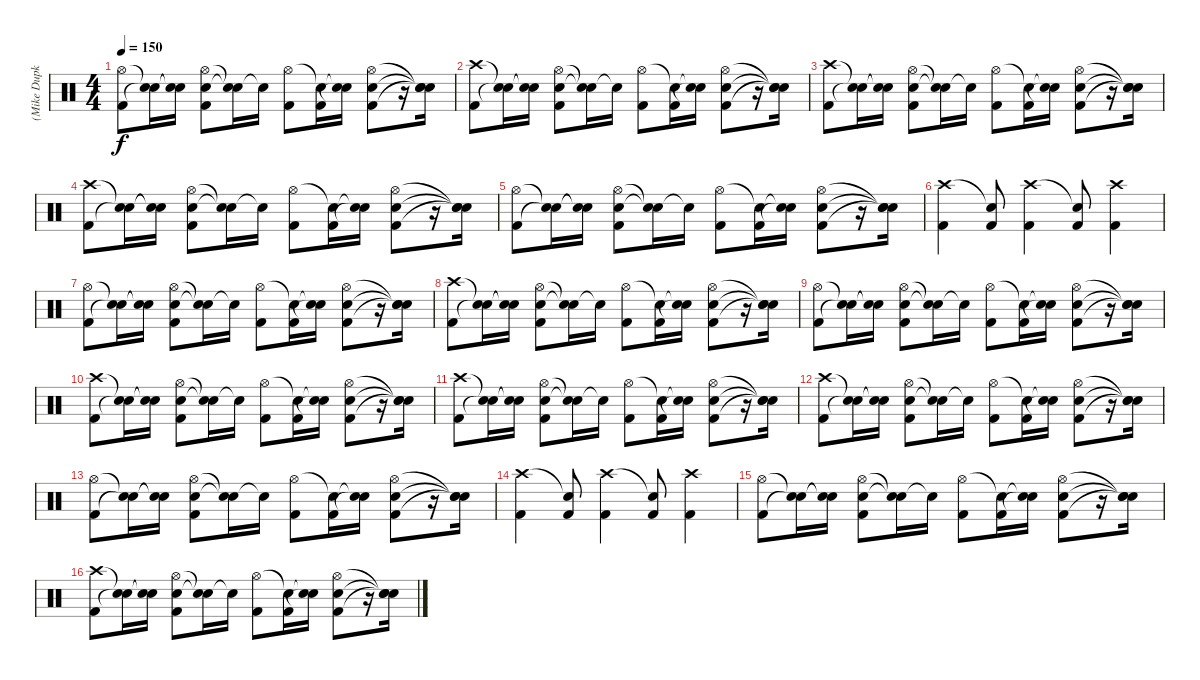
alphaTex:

\track ("(Mike Dupke) Drums" "(Mike Dupk") {instrument percussion}
\staff {score}
\articulation defaults
\ts (4 4)
\tempo 150
\clef neutral
\ks c
("Hi-Hat (open)" "Kick (hit) 2").8{dy f} ("Snare (hit)"{t} "Snare (hit)"{t}).16 ("Snare (hit)"{t} "Snare (hit)"{t}).16 ("Hi-Hat (open)" "Snare (hit) 2" "Kick (hit) 2").8 ("Snare (hit)"{t} "Snare (hit)"{t}).16 "Snare (hit)"{t}.16 ("Hi-Hat (open)" "Kick (hit) 2").8 ("Snare (hit)"{t} "Kick (hit) 2").16 ("Snare (hit)"{t} "Snare (hit)"{t}).16 ("Hi-Hat (open)" "Snare (hit) 2" "Kick (hit) 2").8 r.16 ("Snare (hit)"{t} "Snare (hit)"{t} "Snare (hit)"{t}).16 |
("Crash high (hit)" "Kick (hit) 2").8 ("Snare (hit)"{t} "Snare (hit)"{t}).16 ("Snare (hit)"{t} "Snare (hit)"{t}).16 ("Hi-Hat (open)" "Snare (hit) 2" "Kick (hit) 2").8 ("Snare (hit)"{t} "Snare (hit)"{t}).16 "Snare (hit)"{t}.16 ("Hi-Hat (open)" "Kick (hit) 2").8 ("Snare (hit)"{t} "Kick (hit) 2").16 ("Snare (hit)"{t} "Snare (hit)"{t}).16 ("Hi-Hat (open)" "Snare (hit) 2" "Kick (hit) 2").8 r.16 ("Snare (hit)"{t} "Snare (hit)"{t} "Snare (hit)"{t}).16 |
("Crash high (hit)" "Kick (hit) 2").8 ("Snare (hit)"{t} "Snare (hit)"{t}).16 ("Snare (hit)"{t} "Snare (hit)"{t}).16 ("Hi-Hat (open)" "Snare (hit) 2" "Kick (hit) 2").8 ("Snare (hit)"{t} "Snare (hit)"{t}).16 "Snare (hit)"{t}.16 ("Hi-Hat (open)" "Kick (hit) 2").8 ("Snare (hit)"{t} "Kick (hit) 2").16 ("Snare (hit)"{t} "Snare (hit)"{t}).16 ("Hi-Hat (open)" "Snare (hit) 2" "Kick (hit) 2").8 r.16 ("Snare (hit)"{t} "Snare (hit)"{t} "Snare (hit)"{t}).16 |
("Crash high (hit)" "Kick (hit) 2").8 ("Snare (hit)"{t} "Snare (hit)"{t}).16 ("Snare (hit)"{t} "Snare (hit)"{t}).16 ("Hi-Hat (open)" "Snare (hit) 2" "Kick (hit) 2").8 ("Snare (hit)"{t} "Snare (hit)"{t}).16 "Snare (hit)"{t}.16 ("Hi-Hat (open)" "Kick (hit) 2").8 ("Snare (hit)"{t} "Kick (hit) 2").16 ("Snare (hit)"{t} "Snare (hit)"{t}).16 ("Hi-Hat (open)" "Snare (hit) 2" "Kick (hit) 2").8 r.16 ("Snare (hit)"{t} "Snare (hit)"{t} "Snare (hit)"{t}).16 |
("Hi-Hat (open)" "Kick (hit) 2").8 ("Snare (hit)"{t} "Snare (hit)"{t}).16 ("Snare (hit)"{t} "Snare (hit)"{t}).16 ("Hi-Hat (open)" "Snare (hit) 2" "Kick (hit) 2").8 ("Snare (hit)"{t} "Snare (hit)"{t}).16 "Snare (hit)"{t}.16 ("Hi-Hat (open)" "Kick (hit) 2").8 ("Snare (hit)"{t} "Kick (hit) 2").16 ("Snare (hit)"{t} "Snare (hit)"{t}).16 ("Hi-Hat (open)" "Snare (hit) 2" "Kick (hit) 2").8 r.16 ("Snare (hit)"{t} "Snare (hit)"{t} "Snare (hit)"{t}).16 |
("Crash high (hit)" "Kick (hit) 2").4 ("Snare (hit)"{t} "Kick (hit) 2").8 ("Crash high (hit)" "Kick (hit) 2").4 ("Snare (hit)"{t} "Kick (hit) 2").8 ("Crash high (hit)" "Kick (hit) 2").4 |
("Hi-Hat (open)" "Kick (hit) 2").8 ("Snare (hit)"{t} "Snare (hit)"{t}).16 ("Snare (hit)"{t} "Snare (hit)"{t}).16 ("Hi-Hat (open)" "Snare (hit) 2" "Kick (hit) 2").8 ("Snare (hit)"{t} "Snare (hit)"{t}).16 "Snare (hit)"{t}.16 ("Hi-Hat (open)" "Kick (hit) 2").8 ("Snare (hit)"{t} "Kick (hit) 2").16 ("Snare (hit)"{t} "Snare (hit)"{t}).16 ("Hi-Hat (open)" "Snare (hit) 2" "Kick (hit) 2").8 r.16 ("Snare (hit)"{t} "Snare (hit)"{t} "Snare (hit)"{t}).16 |
("Crash high (hit)" "Kick (hit) 2").8 ("Snare (hit)"{t} "Snare (hit)"{t}).16 ("Snare (hit)"{t} "Snare (hit)"{t}).16 ("Hi-Hat (open)" "Snare (hit) 2" "Kick (hit) 2").8 ("Snare (hit)"{t} "Snare (hit)"{t}).16 "Snare (hit)"{t}.16 ("Hi-Hat (open)" "Kick (hit) 2").8 ("Snare (hit)"{t} "Kick (hit) 2").16 ("Snare (hit)"{t} "Snare (hit)"{t}).16 ("Hi-Hat (open)" "Snare (hit) 2" "Kick (hit) 2").8 r.16 ("Snare (hit)"{t} "Snare (hit)"{t} "Snare (hit)"{t}).16 |
("Hi-Hat (open)" "Kick (hit) 2").8 ("Snare (hit)"{t} "Snare (hit)"{t}).16 ("Snare (hit)"{t} "Snare (hit)"{t}).16 ("Hi-Hat (open)" "Snare (hit) 2" "Kick (hit) 2").8 ("Snare (hit)"{t} "Snare (hit)"{t}).16 "Snare (hit)"{t}.16 ("Hi-Hat (open)" "Kick (hit) 2").8 ("Snare (hit)"{t} "Kick (hit) 2").16 ("Snare (hit)"{t} "Snare (hit)"{t}).16 ("Hi-Hat (open)" "Snare (hit) 2" "Kick (hit) 2").8 r.16 ("Snare (hit)"{t} "Snare (hit)"{t} "Snare (hit)"{t}).16 |
("Crash high (hit)" "Kick (hit) 2").8 ("Snare (hit)"{t} "Snare (hit)"{t}).16 ("Snare (hit)"{t} "Snare (hit)"{t}).16 ("Hi-Hat (open)" "Snare (hit) 2" "Kick (hit) 2").8 ("Snare (hit)"{t} "Snare (hit)"{t}).16 "Snare (hit)"{t}.16 ("Hi-Hat (open)" "Kick (hit) 2").8 ("Snare (hit)"{t} "Kick (hit) 2").16 ("Snare (hit)"{t} "Snare (hit)"{t}).16 ("Hi-Hat (open)" "Snare (hit) 2" "Kick (hit) 2").8 r.16 ("Snare (hit)"{t} "Snare (hit)"{t} "Snare (hit)"{t}).16 |
("Crash high (hit)" "Kick (hit) 2").8 ("Snare (hit)"{t} "Snare (hit)"{t}).16 ("Snare (hit)"{t} "Snare (hit)"{t}).16 ("Hi-Hat (open)" "Snare (hit) 2" "Kick (hit) 2").8 ("Snare (hit)"{t} "Snare (hit)"{t}).16 "Snare (hit)"{t}.16 ("Hi-Hat (open)" "Kick (hit) 2").8 ("Snare (hit)"{t} "Kick (hit) 2").16 ("Snare (hit)"{t} "Snare (hit)"{t}).16 ("Hi-Hat (open)" "Snare (hit) 2" "Kick (hit) 2").8 r.16 ("Snare (hit)"{t} "Snare (hit)"{t} "Snare (hit)"{t}).16 |
("Crash high (hit)" "Kick (hit) 2").8 ("Snare (hit)"{t} "Snare (hit)"{t}).16 ("Snare (hit)"{t} "Snare (hit)"{t}).16 ("Hi-Hat (open)" "Snare (hit) 2" "Kick (hit) 2").8 ("Snare (hit)"{t} "Snare (hit)"{t}).16 "Snare (hit)"{t}.16 ("Hi-Hat (open)" "Kick (hit) 2").8 ("Snare (hit)"{t} "Kick (hit) 2").16 ("Snare (hit)"{t} "Snare (hit)"{t}).16 ("Hi-Hat (open)" "Snare (hit) 2" "Kick (hit) 2").8 r.16 ("Snare (hit)"{t} "Snare (hit)"{t} "Snare (hit)"{t}).16 |
("Hi-Hat (open)" "Kick (hit) 2").8 ("Snare (hit)"{t} "Snare (hit)"{t}).16 ("Snare (hit)"{t} "Snare (hit)"{t}).16 ("Hi-Hat (open)" "Snare (hit) 2" "Kick (hit) 2").8 ("Snare (hit)"{t} "Snare (hit)"{t}).16 "Snare (hit)"{t}.16 ("Hi-Hat (open)" "Kick (hit) 2").8 ("Snare (hit)"{t} "Kick (hit) 2").16 ("Snare (hit)"{t} "Snare (hit)"{t}).16 ("Hi-Hat (open)" "Snare (hit) 2" "Kick (hit) 2").8 r.16 ("Snare (hit)"{t} "Snare (hit)"{t} "Snare (hit)"{t}).16 |
("Crash high (hit)" "Kick (hit) 2").4 ("Snare (hit)"{t} "Kick (hit) 2").8 ("Crash high (hit)" "Kick (hit) 2").4 ("Snare (hit)"{t} "Kick (hit) 2").8 ("Crash high (hit)" "Kick (hit) 2").4 |
("Hi-Hat (open)" "Kick (hit) 2").8 ("Snare (hit)"{t} "Snare (hit)"{t}).16 ("Snare (hit)"{t} "Snare (hit)"{t}).16 ("Hi-Hat (open)" "Snare (hit) 2" "Kick (hit) 2").8 ("Snare (hit)"{t} "Snare (hit)"{t}).16 "Snare (hit)"{t}.16 ("Hi-Hat (open)" "Kick (hit) 2").8 ("Snare (hit)"{t} "Kick (hit) 2").16 ("Snare (hit)"{t} "Snare (hit)"{t}).16 ("Hi-Hat (open)" "Snare (hit) 2" "Kick (hit) 2").8 r.16 ("Snare (hit)"{t} "Snare (hit)"{t} "Snare (hit)"{t}).16 |
("Crash high (hit)" "Kick (hit) 2").8 ("Snare (hit)"{t} "Snare (hit)"{t}).16 ("Snare (hit)"{t} "Snare (hit)"{t}).16 ("Hi-Hat (open)" "Snare (hit) 2" "Kick (hit) 2").8 ("Snare (hit)"{t} "Snare (hit)"{t}).16 "Snare (hit)"{t}.16 ("Hi-Hat (open)" "Kick (hit) 2").8 ("Snare (hit)"{t} "Kick (hit) 2").16 ("Snare (hit)"{t} "Snare (hit)"{t}).16 ("Hi-Hat (open)" "Snare (hit) 2" "Kick (hit) 2").8 r.16 ("Snare (hit)"{t} "Snare (hit)"{t} "Snare (hit)"{t}).16
